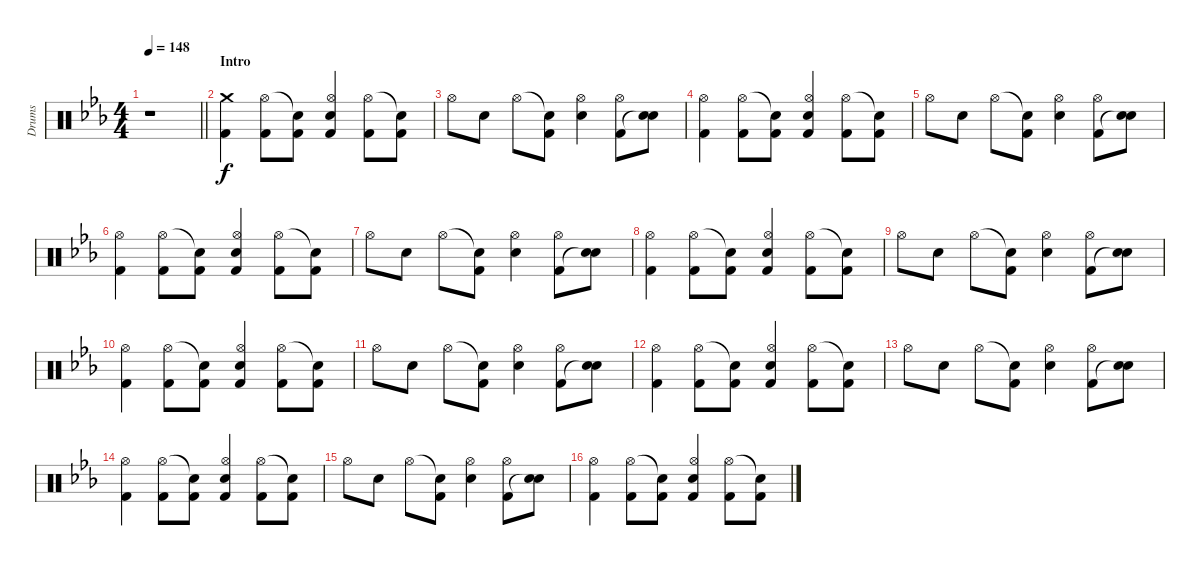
\track ("Drums" "Drums") {instrument percussion}
\staff {score}
\articulation defaults
\ts (4 4)
\tempo 148
\clef neutral
\barLineRight lightlight
\ks eb
r.1{dy f} |
\section ("" "Intro")
("Crash medium (hit)" "Kick (hit) 2").4 ("Hi-Hat (open)" "Kick (hit) 2").8 ("Snare (hit)"{t} "Kick (hit) 2").8 ("Hi-Hat (open)" "Electric Snare (hit)" "Kick (hit) 2").4 ("Hi-Hat (open)" "Kick (hit) 2").8 ("Snare (hit)"{t} "Kick (hit) 2").8 |
"Hi-Hat (open)".8 "Electric Snare (hit)".8 "Hi-Hat (open)".8 ("Snare (hit)"{t} "Kick (hit) 2").8 ("Hi-Hat (open)" "Electric Snare (hit)").4 ("Hi-Hat (open)" "Kick (hit) 2").8 ("Electric Snare (hit)" "Snare (hit)"{t}).8 |
("Hi-Hat (open)" "Kick (hit) 2").4 ("Hi-Hat (open)" "Kick (hit) 2").8 ("Snare (hit)"{t} "Kick (hit) 2").8 ("Hi-Hat (open)" "Electric Snare (hit)" "Kick (hit) 2").4 ("Hi-Hat (open)" "Kick (hit) 2").8 ("Snare (hit)"{t} "Kick (hit) 2").8 |
"Hi-Hat (open)".8 "Electric Snare (hit)".8 "Hi-Hat (open)".8 ("Snare (hit)"{t} "Kick (hit) 2").8 ("Hi-Hat (open)" "Electric Snare (hit)").4 ("Hi-Hat (open)" "Kick (hit) 2").8 ("Electric Snare (hit)" "Snare (hit)"{t}).8 |
("Hi-Hat (open)" "Kick (hit) 2").4 ("Hi-Hat (open)" "Kick (hit) 2").8 ("Snare (hit)"{t} "Kick (hit) 2").8 ("Hi-Hat (open)" "Electric Snare (hit)" "Kick (hit) 2").4 ("Hi-Hat (open)" "Kick (hit) 2").8 ("Snare (hit)"{t} "Kick (hit) 2").8 |
"Hi-Hat (open)".8 "Electric Snare (hit)".8 "Hi-Hat (open)".8 ("Snare (hit)"{t} "Kick (hit) 2").8 ("Hi-Hat (open)" "Electric Snare (hit)").4 ("Hi-Hat (open)" "Kick (hit) 2").8 ("Electric Snare (hit)" "Snare (hit)"{t}).8 |
("Hi-Hat (open)" "Kick (hit) 2").4 ("Hi-Hat (open)" "Kick (hit) 2").8 ("Snare (hit)"{t} "Kick (hit) 2").8 ("Hi-Hat (open)" "Electric Snare (hit)" "Kick (hit) 2").4 ("Hi-Hat (open)" "Kick (hit) 2").8 ("Snare (hit)"{t} "Kick (hit) 2").8 |
"Hi-Hat (open)".8 "Electric Snare (hit)".8 "Hi-Hat (open)".8 ("Snare (hit)"{t} "Kick (hit) 2").8 ("Hi-Hat (open)" "Electric Snare (hit)").4 ("Hi-Hat (open)" "Kick (hit) 2").8 ("Electric Snare (hit)" "Snare (hit)"{t}).8 |
("Hi-Hat (open)" "Kick (hit) 2").4 ("Hi-Hat (open)" "Kick (hit) 2").8 ("Snare (hit)"{t} "Kick (hit) 2").8 ("Hi-Hat (open)" "Electric Snare (hit)" "Kick (hit) 2").4 ("Hi-Hat (open)" "Kick (hit) 2").8 ("Snare (hit)"{t} "Kick (hit) 2").8 |
"Hi-Hat (open)".8 "Electric Snare (hit)".8 "Hi-Hat (open)".8 ("Snare (hit)"{t} "Kick (hit) 2").8 ("Hi-Hat (open)" "Electric Snare (hit)").4 ("Hi-Hat (open)" "Kick (hit) 2").8 ("Electric Snare (hit)" "Snare (hit)"{t}).8 |
("Hi-Hat (open)" "Kick (hit) 2").4 ("Hi-Hat (open)" "Kick (hit) 2").8 ("Snare (hit)"{t} "Kick (hit) 2").8 ("Hi-Hat (open)" "Electric Snare (hit)" "Kick (hit) 2").4 ("Hi-Hat (open)" "Kick (hit) 2").8 ("Snare (hit)"{t} "Kick (hit) 2").8 |
"Hi-Hat (open)".8 "Electric Snare (hit)".8 "Hi-Hat (open)".8 ("Snare (hit)"{t} "Kick (hit) 2").8 ("Hi-Hat (open)" "Electric Snare (hit)").4 ("Hi-Hat (open)" "Kick (hit) 2").8 ("Electric Snare (hit)" "Snare (hit)"{t}).8 |
("Hi-Hat (open)" "Kick (hit) 2").4 ("Hi-Hat (open)" "Kick (hit) 2").8 ("Snare (hit)"{t} "Kick (hit) 2").8 ("Hi-Hat (open)" "Electric Snare (hit)" "Kick (hit) 2").4 ("Hi-Hat (open)" "Kick (hit) 2").8 ("Snare (hit)"{t} "Kick (hit) 2").8 |
"Hi-Hat (open)".8 "Electric Snare (hit)".8 "Hi-Hat (open)".8 ("Snare (hit)"{t} "Kick (hit) 2").8 ("Hi-Hat (open)" "Electric Snare (hit)").4 ("Hi-Hat (open)" "Kick (hit) 2").8 ("Electric Snare (hit)" "Snare (hit)"{t}).8 |
("Hi-Hat (open)" "Kick (hit) 2").4 ("Hi-Hat (open)" "Kick (hit) 2").8 ("Snare (hit)"{t} "Kick (hit) 2").8 ("Hi-Hat (open)" "Electric Snare (hit)" "Kick (hit) 2").4 ("Hi-Hat (open)" "Kick (hit) 2").8 ("Snare (hit)"{t} "Kick (hit) 2").8
